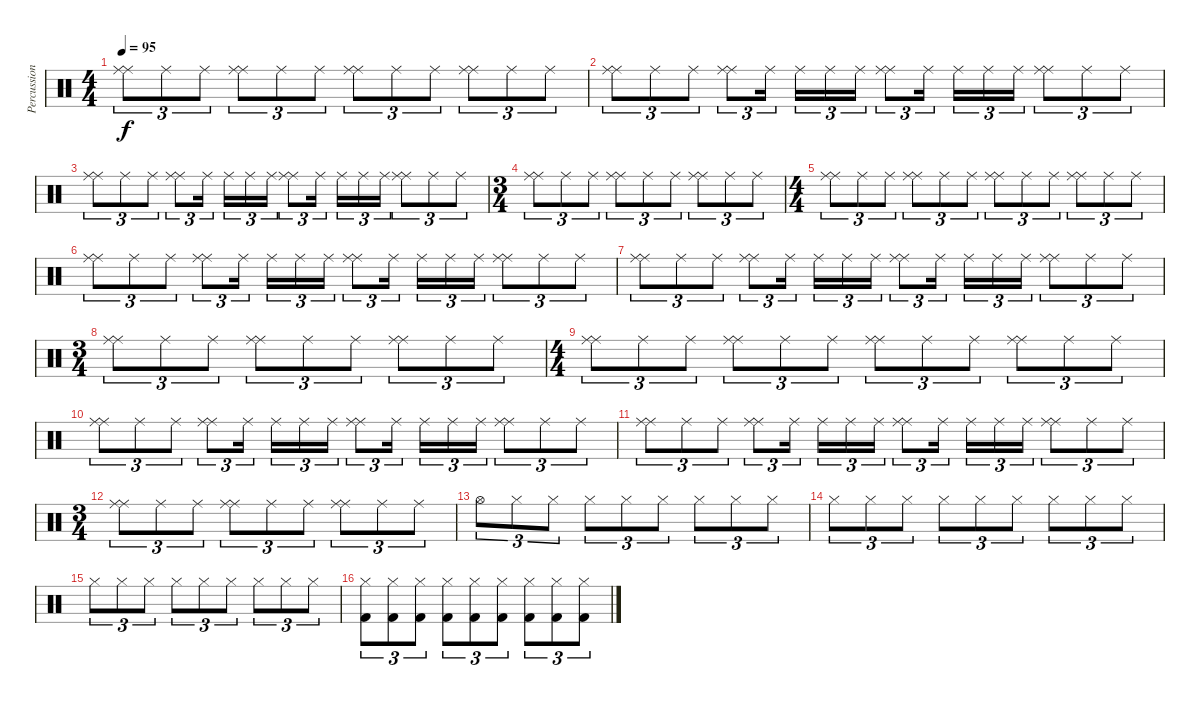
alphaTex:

\track ("Percussions" "Percussion") {instrument percussion}
\staff {score}
\articulation defaults
\ts (4 4)
\tempo 95
\clef neutral
\ks c
("Ride (middle)" "Ride (middle)").8{tu (3 2) dy f} "Ride (middle)".8{tu (3 2)} "Ride (middle)".8{tu (3 2)} ("Ride (middle)" "Ride (middle)").8{tu (3 2)} "Ride (middle)".8{tu (3 2)} "Ride (middle)".8{tu (3 2)} ("Ride (middle)" "Ride (middle)").8{tu (3 2)} "Ride (middle)".8{tu (3 2)} "Ride (middle)".8{tu (3 2)} ("Ride (middle)" "Ride (middle)").8{tu (3 2)} "Ride (middle)".8{tu (3 2)} "Ride (middle)".8{tu (3 2)} |
("Ride (middle)" "Ride (middle)").8{tu (3 2)} "Ride (middle)".8{tu (3 2)} "Ride (middle)".8{tu (3 2)} ("Ride (middle)" "Ride (middle)").8{tu (3 2)} "Ride (middle)".16{tu (3 2) beam splitsecondary} "Ride (middle)".16{tu (3 2)} "Ride (middle)".16{tu (3 2)} "Ride (middle)".16{tu (3 2)} ("Ride (middle)" "Ride (middle)").8{tu (3 2)} "Ride (middle)".16{tu (3 2) beam splitsecondary} "Ride (middle)".16{tu (3 2)} "Ride (middle)".16{tu (3 2)} "Ride (middle)".16{tu (3 2)} ("Ride (middle)" "Ride (middle)").8{tu (3 2)} "Ride (middle)".8{tu (3 2)} "Ride (middle)".8{tu (3 2)} |
("Ride (middle)" "Ride (middle)").8{tu (3 2)} "Ride (middle)".8{tu (3 2)} "Ride (middle)".8{tu (3 2)} ("Ride (middle)" "Ride (middle)").8{tu (3 2)} "Ride (middle)".16{tu (3 2) beam splitsecondary} "Ride (middle)".16{tu (3 2)} "Ride (middle)".16{tu (3 2)} "Ride (middle)".16{tu (3 2)} ("Ride (middle)" "Ride (middle)").8{tu (3 2)} "Ride (middle)".16{tu (3 2) beam splitsecondary} "Ride (middle)".16{tu (3 2)} "Ride (middle)".16{tu (3 2)} "Ride (middle)".16{tu (3 2)} ("Ride (middle)" "Ride (middle)").8{tu (3 2)} "Ride (middle)".8{tu (3 2)} "Ride (middle)".8{tu (3 2)} |
\ts (3 4)
("Ride (middle)" "Ride (middle)").8{tu (3 2)} "Ride (middle)".8{tu (3 2)} "Ride (middle)".8{tu (3 2)} ("Ride (middle)" "Ride (middle)").8{tu (3 2)} "Ride (middle)".8{tu (3 2)} "Ride (middle)".8{tu (3 2)} ("Ride (middle)" "Ride (middle)").8{tu (3 2)} "Ride (middle)".8{tu (3 2)} "Ride (middle)".8{tu (3 2)} |
\ts (4 4)
("Ride (middle)" "Ride (middle)").8{tu (3 2)} "Ride (middle)".8{tu (3 2)} "Ride (middle)".8{tu (3 2)} ("Ride (middle)" "Ride (middle)").8{tu (3 2)} "Ride (middle)".8{tu (3 2)} "Ride (middle)".8{tu (3 2)} ("Ride (middle)" "Ride (middle)").8{tu (3 2)} "Ride (middle)".8{tu (3 2)} "Ride (middle)".8{tu (3 2)} ("Ride (middle)" "Ride (middle)").8{tu (3 2)} "Ride (middle)".8{tu (3 2)} "Ride (middle)".8{tu (3 2)} |
("Ride (middle)" "Ride (middle)").8{tu (3 2)} "Ride (middle)".8{tu (3 2)} "Ride (middle)".8{tu (3 2)} ("Ride (middle)" "Ride (middle)").8{tu (3 2)} "Ride (middle)".16{tu (3 2) beam splitsecondary} "Ride (middle)".16{tu (3 2)} "Ride (middle)".16{tu (3 2)} "Ride (middle)".16{tu (3 2)} ("Ride (middle)" "Ride (middle)").8{tu (3 2)} "Ride (middle)".16{tu (3 2) beam splitsecondary} "Ride (middle)".16{tu (3 2)} "Ride (middle)".16{tu (3 2)} "Ride (middle)".16{tu (3 2)} ("Ride (middle)" "Ride (middle)").8{tu (3 2)} "Ride (middle)".8{tu (3 2)} "Ride (middle)".8{tu (3 2)} |
("Ride (middle)" "Ride (middle)").8{tu (3 2)} "Ride (middle)".8{tu (3 2)} "Ride (middle)".8{tu (3 2)} ("Ride (middle)" "Ride (middle)").8{tu (3 2)} "Ride (middle)".16{tu (3 2) beam splitsecondary} "Ride (middle)".16{tu (3 2)} "Ride (middle)".16{tu (3 2)} "Ride (middle)".16{tu (3 2)} ("Ride (middle)" "Ride (middle)").8{tu (3 2)} "Ride (middle)".16{tu (3 2) beam splitsecondary} "Ride (middle)".16{tu (3 2)} "Ride (middle)".16{tu (3 2)} "Ride (middle)".16{tu (3 2)} ("Ride (middle)" "Ride (middle)").8{tu (3 2)} "Ride (middle)".8{tu (3 2)} "Ride (middle)".8{tu (3 2)} |
\ts (3 4)
("Ride (middle)" "Ride (middle)").8{tu (3 2)} "Ride (middle)".8{tu (3 2)} "Ride (middle)".8{tu (3 2)} ("Ride (middle)" "Ride (middle)").8{tu (3 2)} "Ride (middle)".8{tu (3 2)} "Ride (middle)".8{tu (3 2)} ("Ride (middle)" "Ride (middle)").8{tu (3 2)} "Ride (middle)".8{tu (3 2)} "Ride (middle)".8{tu (3 2)} |
\ts (4 4)
("Ride (middle)" "Ride (middle)").8{tu (3 2)} "Ride (middle)".8{tu (3 2)} "Ride (middle)".8{tu (3 2)} ("Ride (middle)" "Ride (middle)").8{tu (3 2)} "Ride (middle)".8{tu (3 2)} "Ride (middle)".8{tu (3 2)} ("Ride (middle)" "Ride (middle)").8{tu (3 2)} "Ride (middle)".8{tu (3 2)} "Ride (middle)".8{tu (3 2)} ("Ride (middle)" "Ride (middle)").8{tu (3 2)} "Ride (middle)".8{tu (3 2)} "Ride (middle)".8{tu (3 2)} |
("Ride (middle)" "Ride (middle)").8{tu (3 2)} "Ride (middle)".8{tu (3 2)} "Ride (middle)".8{tu (3 2)} ("Ride (middle)" "Ride (middle)").8{tu (3 2)} "Ride (middle)".16{tu (3 2) beam splitsecondary} "Ride (middle)".16{tu (3 2)} "Ride (middle)".16{tu (3 2)} "Ride (middle)".16{tu (3 2)} ("Ride (middle)" "Ride (middle)").8{tu (3 2)} "Ride (middle)".16{tu (3 2) beam splitsecondary} "Ride (middle)".16{tu (3 2)} "Ride (middle)".16{tu (3 2)} "Ride (middle)".16{tu (3 2)} ("Ride (middle)" "Ride (middle)").8{tu (3 2)} "Ride (middle)".8{tu (3 2)} "Ride (middle)".8{tu (3 2)} |
("Ride (middle)" "Ride (middle)").8{tu (3 2)} "Ride (middle)".8{tu (3 2)} "Ride (middle)".8{tu (3 2)} ("Ride (middle)" "Ride (middle)").8{tu (3 2)} "Ride (middle)".16{tu (3 2) beam splitsecondary} "Ride (middle)".16{tu (3 2)} "Ride (middle)".16{tu (3 2)} "Ride (middle)".16{tu (3 2)} ("Ride (middle)" "Ride (middle)").8{tu (3 2)} "Ride (middle)".16{tu (3 2) beam splitsecondary} "Ride (middle)".16{tu (3 2)} "Ride (middle)".16{tu (3 2)} "Ride (middle)".16{tu (3 2)} ("Ride (middle)" "Ride (middle)").8{tu (3 2)} "Ride (middle)".8{tu (3 2)} "Ride (middle)".8{tu (3 2)} |
\ts (3 4)
("Ride (middle)" "Ride (middle)").8{tu (3 2)} "Ride (middle)".8{tu (3 2)} "Ride (middle)".8{tu (3 2)} ("Ride (middle)" "Ride (middle)").8{tu (3 2)} "Ride (middle)".8{tu (3 2)} "Ride (middle)".8{tu (3 2)} ("Ride (middle)" "Ride (middle)").8{tu (3 2)} "Ride (middle)".8{tu (3 2)} "Ride (middle)".8{tu (3 2)} |
"Hi-Hat (open)".8{tu (3 2)} "Hi-Hat (closed)".8{tu (3 2)} "Hi-Hat (closed)".8{tu (3 2)} "Hi-Hat (closed)".8{tu (3 2)} "Hi-Hat (closed)".8{tu (3 2)} "Hi-Hat (closed)".8{tu (3 2)} "Hi-Hat (closed)".8{tu (3 2)} "Hi-Hat (closed)".8{tu (3 2)} "Hi-Hat (closed)".8{tu (3 2)} |
"Hi-Hat (closed)".8{tu (3 2)} "Hi-Hat (closed)".8{tu (3 2)} "Hi-Hat (closed)".8{tu (3 2)} "Hi-Hat (closed)".8{tu (3 2)} "Hi-Hat (closed)".8{tu (3 2)} "Hi-Hat (closed)".8{tu (3 2)} "Hi-Hat (closed)".8{tu (3 2)} "Hi-Hat (closed)".8{tu (3 2)} "Hi-Hat (closed)".8{tu (3 2)} |
"Hi-Hat (closed)".8{tu (3 2)} "Hi-Hat (closed)".8{tu (3 2)} "Hi-Hat (closed)".8{tu (3 2)} "Hi-Hat (closed)".8{tu (3 2)} "Hi-Hat (closed)".8{tu (3 2)} "Hi-Hat (closed)".8{tu (3 2)} "Hi-Hat (closed)".8{tu (3 2)} "Hi-Hat (closed)".8{tu (3 2)} "Hi-Hat (closed)".8{tu (3 2)} |
("Hi-Hat (closed)" "Kick (hit) 2").8{tu (3 2)} ("Hi-Hat (closed)" "Kick (hit) 2").8{tu (3 2)} ("Hi-Hat (closed)" "Kick (hit) 2").8{tu (3 2)} ("Hi-Hat (closed)" "Kick (hit) 2").8{tu (3 2)} ("Hi-Hat (closed)" "Kick (hit) 2").8{tu (3 2)} ("Hi-Hat (closed)" "Kick (hit) 2").8{tu (3 2)} ("Hi-Hat (closed)" "Kick (hit) 2").8{tu (3 2)} ("Hi-Hat (closed)" "Kick (hit) 2").8{tu (3 2)} ("Hi-Hat (closed)" "Kick (hit) 2").8{tu (3 2)}
